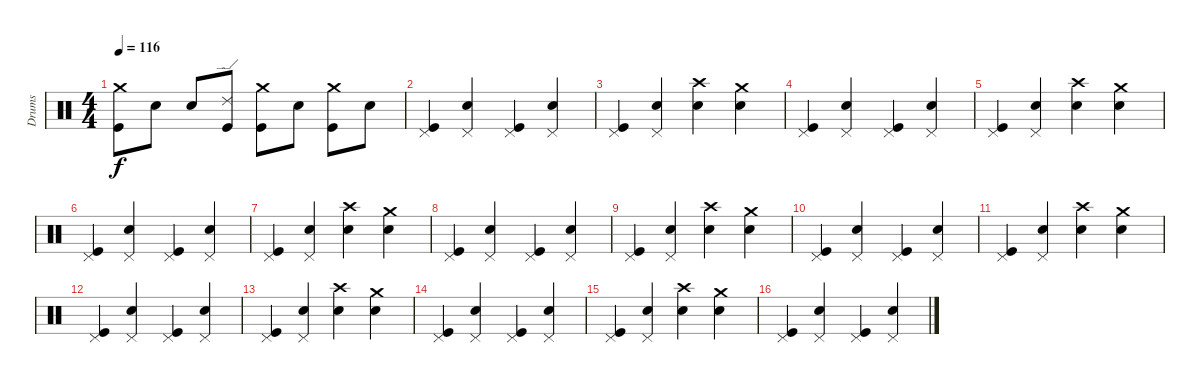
\track ("Drums" "Drums") {instrument percussion}
\staff {score}
\articulation defaults
\ts (4 4)
\tempo 116
\clef neutral
\ks c
("Crash medium (hit)" "Kick (hit)").8{dy f} "Electric Snare (hit)".8 "Electric Snare (hit)".8 ("Ride (edge) 2" "Kick (hit)").8 ("Crash medium (hit)" "Kick (hit)").8 "Electric Snare (hit)".8 ("Crash medium (hit)" "Kick (hit)").8 "Electric Snare (hit)".8 |
("Pedal Hi-Hat (hit)" "Kick (hit)").4 ("Pedal Hi-Hat (hit)" "Electric Snare (hit)").4 ("Pedal Hi-Hat (hit)" "Kick (hit)").4 ("Pedal Hi-Hat (hit)" "Electric Snare (hit)").4 |
("Pedal Hi-Hat (hit)" "Kick (hit)").4 ("Pedal Hi-Hat (hit)" "Electric Snare (hit)").4 ("Electric Snare (hit)" "Crash high (hit)").4 ("Crash medium (hit)" "Electric Snare (hit)").4 |
("Pedal Hi-Hat (hit)" "Kick (hit)").4 ("Pedal Hi-Hat (hit)" "Electric Snare (hit)").4 ("Pedal Hi-Hat (hit)" "Kick (hit)").4 ("Pedal Hi-Hat (hit)" "Electric Snare (hit)").4 |
("Pedal Hi-Hat (hit)" "Kick (hit)").4 ("Pedal Hi-Hat (hit)" "Electric Snare (hit)").4 ("Electric Snare (hit)" "Crash high (hit)").4 ("Crash medium (hit)" "Electric Snare (hit)").4 |
("Pedal Hi-Hat (hit)" "Kick (hit)").4 ("Pedal Hi-Hat (hit)" "Electric Snare (hit)").4 ("Pedal Hi-Hat (hit)" "Kick (hit)").4 ("Pedal Hi-Hat (hit)" "Electric Snare (hit)").4 |
("Pedal Hi-Hat (hit)" "Kick (hit)").4 ("Pedal Hi-Hat (hit)" "Electric Snare (hit)").4 ("Electric Snare (hit)" "Crash high (hit)").4 ("Crash medium (hit)" "Electric Snare (hit)").4 |
("Pedal Hi-Hat (hit)" "Kick (hit)").4 ("Pedal Hi-Hat (hit)" "Electric Snare (hit)").4 ("Pedal Hi-Hat (hit)" "Kick (hit)").4 ("Pedal Hi-Hat (hit)" "Electric Snare (hit)").4 |
("Pedal Hi-Hat (hit)" "Kick (hit)").4 ("Pedal Hi-Hat (hit)" "Electric Snare (hit)").4 ("Electric Snare (hit)" "Crash high (hit)").4 ("Crash medium (hit)" "Electric Snare (hit)").4 |
("Pedal Hi-Hat (hit)" "Kick (hit)").4 ("Pedal Hi-Hat (hit)" "Electric Snare (hit)").4 ("Pedal Hi-Hat (hit)" "Kick (hit)").4 ("Pedal Hi-Hat (hit)" "Electric Snare (hit)").4 |
("Pedal Hi-Hat (hit)" "Kick (hit)").4 ("Pedal Hi-Hat (hit)" "Electric Snare (hit)").4 ("Electric Snare (hit)" "Crash high (hit)").4 ("Crash medium (hit)" "Electric Snare (hit)").4 |
("Pedal Hi-Hat (hit)" "Kick (hit)").4 ("Pedal Hi-Hat (hit)" "Electric Snare (hit)").4 ("Pedal Hi-Hat (hit)" "Kick (hit)").4 ("Pedal Hi-Hat (hit)" "Electric Snare (hit)").4 |
("Pedal Hi-Hat (hit)" "Kick (hit)").4 ("Pedal Hi-Hat (hit)" "Electric Snare (hit)").4 ("Electric Snare (hit)" "Crash high (hit)").4 ("Crash medium (hit)" "Electric Snare (hit)").4 |
("Pedal Hi-Hat (hit)" "Kick (hit)").4 ("Pedal Hi-Hat (hit)" "Electric Snare (hit)").4 ("Pedal Hi-Hat (hit)" "Kick (hit)").4 ("Pedal Hi-Hat (hit)" "Electric Snare (hit)").4 |
("Pedal Hi-Hat (hit)" "Kick (hit)").4 ("Pedal Hi-Hat (hit)" "Electric Snare (hit)").4 ("Electric Snare (hit)" "Crash high (hit)").4 ("Crash medium (hit)" "Electric Snare (hit)").4 |
("Pedal Hi-Hat (hit)" "Kick (hit)").4 ("Pedal Hi-Hat (hit)" "Electric Snare (hit)").4 ("Pedal Hi-Hat (hit)" "Kick (hit)").4 ("Pedal Hi-Hat (hit)" "Electric Snare (hit)").4
